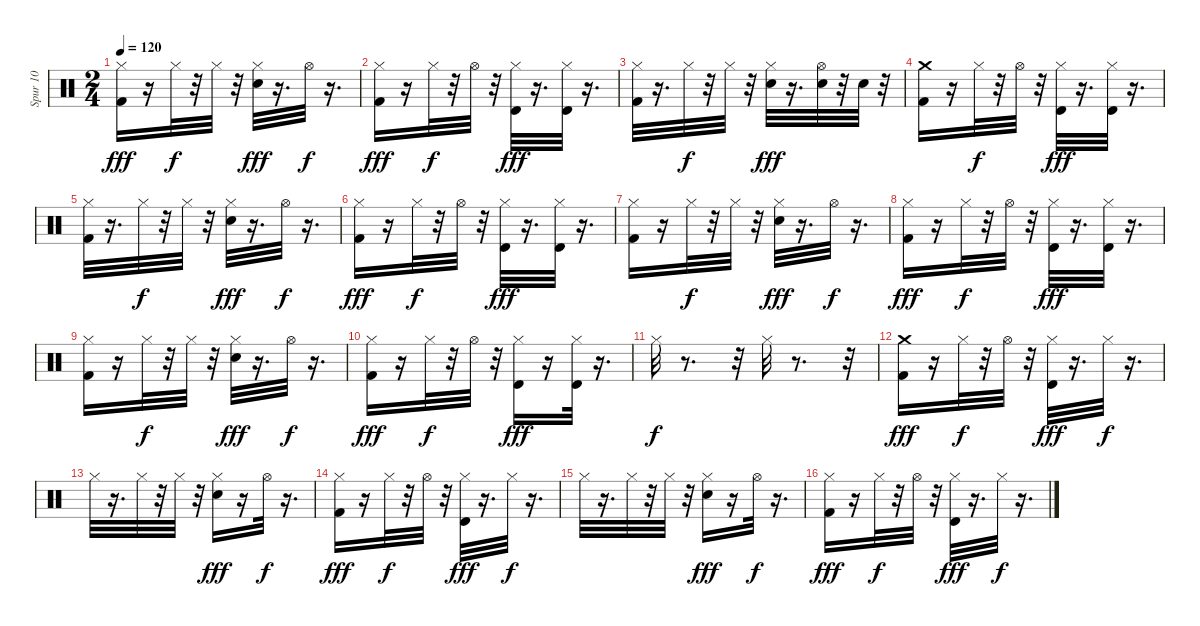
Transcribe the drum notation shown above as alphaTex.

\track ("Spur 10" "Spur 10") {instrument percussion}
\staff {score}
\articulation defaults
\ts (2 4)
\tempo 120
\clef neutral
\ks c
("Kick (hit) 2" "Hi-Hat (closed)").16{dy fff} r.16 "Hi-Hat (closed)".32{dy f} r.32 "Hi-Hat (closed)".32 r.32 ("Electric Snare (hit)" "Hi-Hat (closed)").32{dy fff} r.16{d} "Hi-Hat (open)".32{dy f} r.16{d} |
("Kick (hit) 2" "Hi-Hat (closed)").16{dy fff} r.16 "Hi-Hat (closed)".32{dy f} r.32 "Hi-Hat (open)".32 r.32 ("Timbale high (hit)" "Hi-Hat (closed)").32{dy fff} r.16{d} ("Timbale high (hit)" "Hi-Hat (closed)").32 r.16{d} |
("Kick (hit) 2" "Hi-Hat (closed)").32 r.16{d} "Hi-Hat (closed)".32{dy f} r.32 "Hi-Hat (closed)".32 r.32 ("Electric Snare (hit)" "Hi-Hat (closed)").32{dy fff} r.16{d} ("Electric Snare (hit)" "Hi-Hat (open)").32 r.32 "Electric Snare (hit)".32 r.32 |
("Kick (hit) 2" "Crash medium (hit)").16 r.16 "Hi-Hat (closed)".32{dy f} r.32 "Hi-Hat (open)".32 r.32 ("Timbale high (hit)" "Hi-Hat (closed)").32{dy fff} r.16{d} ("Timbale high (hit)" "Hi-Hat (closed)").32 r.16{d} |
("Kick (hit) 2" "Hi-Hat (closed)").32 r.16{d} "Hi-Hat (closed)".32{dy f} r.32 "Hi-Hat (closed)".32 r.32 ("Electric Snare (hit)" "Hi-Hat (closed)").32{dy fff} r.16{d} "Hi-Hat (open)".32{dy f} r.16{d} |
("Kick (hit) 2" "Hi-Hat (closed)").16{dy fff} r.16 "Hi-Hat (closed)".32{dy f} r.32 "Hi-Hat (open)".32 r.32 ("Timbale high (hit)" "Hi-Hat (closed)").32{dy fff} r.16{d} ("Timbale high (hit)" "Hi-Hat (closed)").32 r.16{d} |
("Kick (hit) 2" "Hi-Hat (closed)").16 r.16 "Hi-Hat (closed)".32{dy f} r.32 "Hi-Hat (closed)".32 r.32 ("Electric Snare (hit)" "Hi-Hat (closed)").32{dy fff} r.16{d} "Hi-Hat (open)".32{dy f} r.16{d} |
("Kick (hit) 2" "Hi-Hat (closed)").16{dy fff} r.16 "Hi-Hat (closed)".32{dy f} r.32 "Hi-Hat (open)".32 r.32 ("Timbale high (hit)" "Hi-Hat (closed)").32{dy fff} r.16{d} ("Timbale high (hit)" "Hi-Hat (closed)").32 r.16{d} |
("Kick (hit) 2" "Hi-Hat (closed)").16 r.16 "Hi-Hat (closed)".32{dy f} r.32 "Hi-Hat (closed)".32 r.32 ("Electric Snare (hit)" "Hi-Hat (closed)").32{dy fff} r.16{d} "Hi-Hat (open)".32{dy f} r.16{d} |
("Kick (hit) 2" "Hi-Hat (closed)").16{dy fff} r.16 "Hi-Hat (closed)".32{dy f} r.32 "Hi-Hat (open)".32 r.32 ("Timbale high (hit)" "Hi-Hat (closed)").16{dy fff} r.16 ("Timbale high (hit)" "Hi-Hat (closed)").32 r.16{d} |
"Hi-Hat (closed)".32{dy f} r.8{d} r.32 "Hi-Hat (closed)".32 r.8{d} r.32 |
("Kick (hit) 2" "Crash medium (hit)").16{dy fff} r.16 "Hi-Hat (closed)".32{dy f} r.32 "Hi-Hat (open)".32 r.32 ("Timbale high (hit)" "Hi-Hat (closed)").32{dy fff} r.16{d} "Hi-Hat (closed)".32{dy f} r.16{d} |
"Hi-Hat (closed)".32 r.16{d} "Hi-Hat (closed)".32 r.32 "Hi-Hat (closed)".32 r.32 ("Electric Snare (hit)" "Hi-Hat (closed)").16{dy fff} r.16 "Hi-Hat (open)".32{dy f} r.16{d} |
("Kick (hit) 2" "Hi-Hat (closed)").16{dy fff} r.16 "Hi-Hat (closed)".32{dy f} r.32 "Hi-Hat (open)".32 r.32 ("Timbale high (hit)" "Hi-Hat (closed)").32{dy fff} r.16{d} "Hi-Hat (closed)".32{dy f} r.16{d} |
"Hi-Hat (closed)".32 r.16{d} "Hi-Hat (closed)".32 r.32 "Hi-Hat (closed)".32 r.32 ("Electric Snare (hit)" "Hi-Hat (closed)").16{dy fff} r.16 "Hi-Hat (open)".32{dy f} r.16{d} |
("Kick (hit) 2" "Hi-Hat (closed)").16{dy fff} r.16 "Hi-Hat (closed)".32{dy f} r.32 "Hi-Hat (open)".32 r.32 ("Timbale high (hit)" "Hi-Hat (closed)").32{dy fff} r.16{d} "Hi-Hat (closed)".32{dy f} r.16{d}
